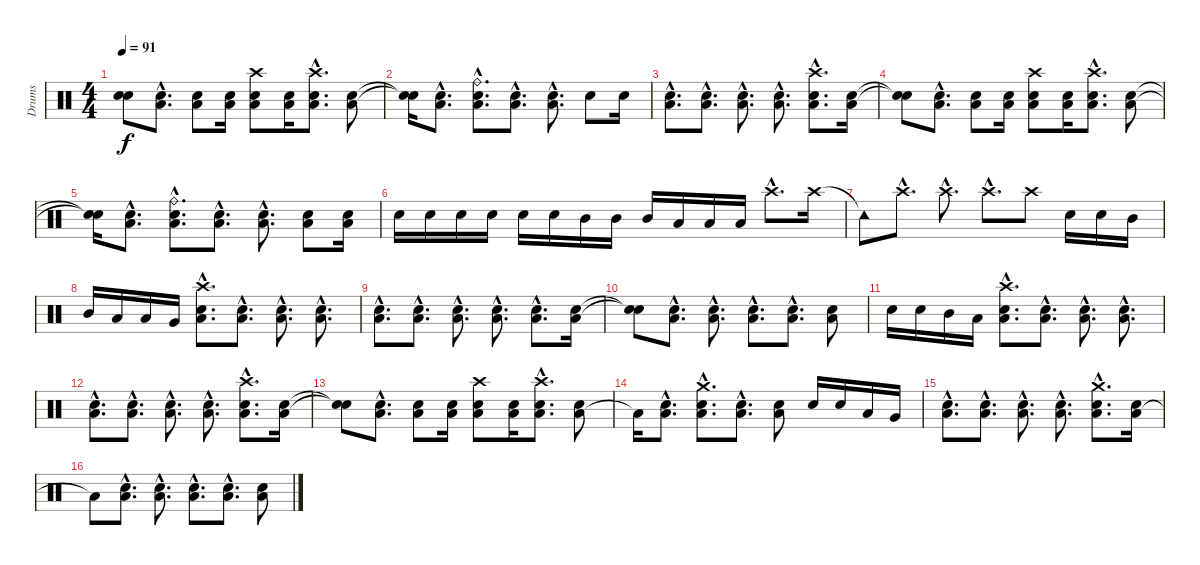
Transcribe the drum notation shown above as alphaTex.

\track ("Drums" "Drums") {instrument percussion}
\staff {score}
\articulation defaults
\ts (4 4)
\tempo 91
\clef neutral
\ks c
("Snare (hit)"{t} "Snare (hit)"{t}).8{dy f} ("Low Tom (hit)"{hac} "Electric Snare (hit)"{hac}).8{d} ("Low Tom (hit)" "Electric Snare (hit)").8 ("Low Tom (hit)" "Electric Snare (hit)").16 ("Crash high (hit)" "Low Tom (hit)" "Electric Snare (hit)").8 ("Low Tom (hit)" "Electric Snare (hit)").16 ("Crash high (hit)"{hac} "Low Tom (hit)"{hac} "Electric Snare (hit)"{hac}).8{d} ("Low Tom (hit)" "Electric Snare (hit)").8 |
("Snare (hit)"{t} "Snare (hit)"{t}).16 ("Low Tom (hit)"{hac} "Electric Snare (hit)"{hac}).8{d} ("Ride (bell)"{hac} "Low Tom (hit)"{hac} "Electric Snare (hit)"{hac}).8{d} ("Low Tom (hit)"{hac} "Electric Snare (hit)"{hac}).8{d} ("Low Tom (hit)"{hac} "Electric Snare (hit)"{hac}).8{d} "Electric Snare (hit)".8 "Electric Snare (hit)".16 |
("Low Tom (hit)"{hac} "Electric Snare (hit)"{hac}).8{d} ("Low Tom (hit)"{hac} "Electric Snare (hit)"{hac}).8{d} ("Low Tom (hit)"{hac} "Electric Snare (hit)"{hac}).8{d} ("Low Tom (hit)"{hac} "Electric Snare (hit)"{hac}).8{d} ("Crash high (hit)"{hac} "Low Tom (hit)"{hac} "Electric Snare (hit)"{hac}).8{d} ("Low Tom (hit)" "Electric Snare (hit)").16 |
("Snare (hit)"{t} "Snare (hit)"{t}).8 ("Low Tom (hit)"{hac} "Electric Snare (hit)"{hac}).8{d} ("Low Tom (hit)" "Electric Snare (hit)").8 ("Low Tom (hit)" "Electric Snare (hit)").16 ("Crash high (hit)" "Low Tom (hit)" "Electric Snare (hit)").8 ("Low Tom (hit)" "Electric Snare (hit)").16 ("Crash high (hit)"{hac} "Low Tom (hit)"{hac} "Electric Snare (hit)"{hac}).8{d} ("Low Tom (hit)" "Electric Snare (hit)").8 |
("Snare (hit)"{t} "Snare (hit)"{t}).16 ("Low Tom (hit)"{hac} "Electric Snare (hit)"{hac}).8{d} ("Ride (bell)"{hac} "Low Tom (hit)"{hac} "Electric Snare (hit)"{hac}).8{d} ("Low Tom (hit)"{hac} "Electric Snare (hit)"{hac}).8{d} ("Low Tom (hit)"{hac} "Electric Snare (hit)"{hac}).8{d} ("Low Tom (hit)" "Electric Snare (hit)").8 ("Low Tom (hit)" "Electric Snare (hit)").16 |
"Electric Snare (hit)".16 "Electric Snare (hit)".16 "Electric Snare (hit)".16 "Electric Snare (hit)".16 "Electric Snare (hit)".16 "Electric Snare (hit)".16 "Mid Tom (hit)".16 "Mid Tom (hit)".16 "Mid Tom (hit)".16 "Low Tom (hit)".16 "Low Tom (hit)".16 "Low Tom (hit)".16 "Crash high (hit)"{hac}.8{d} "Crash high (hit)".16 |
"Tambourine (hit)"{t}.8 "Crash high (hit)"{hac}.8{d} "Crash high (hit)"{hac}.8{d} "Crash high (hit)"{hac}.8{d} "Crash high (hit)".8 "Electric Snare (hit)".16 "Electric Snare (hit)".16 "Mid Tom (hit)".16 |
"Mid Tom (hit)".16 "Low Tom (hit)".16 "Low Tom (hit)".16 "Very Low Tom (hit)".16 ("Crash high (hit)"{hac} "Low Tom (hit)"{hac} "Electric Snare (hit)"{hac}).8{d} ("Low Tom (hit)"{hac} "Electric Snare (hit)"{hac}).8{d} ("Low Tom (hit)"{hac} "Electric Snare (hit)"{hac}).8{d} ("Low Tom (hit)"{hac} "Electric Snare (hit)"{hac}).8{d} |
("Low Tom (hit)"{hac} "Electric Snare (hit)"{hac}).8{d} ("Low Tom (hit)"{hac} "Electric Snare (hit)"{hac}).8{d} ("Low Tom (hit)"{hac} "Electric Snare (hit)"{hac}).8{d} ("Low Tom (hit)"{hac} "Electric Snare (hit)"{hac}).8{d} ("Low Tom (hit)"{hac} "Electric Snare (hit)"{hac}).8{d} ("Low Tom (hit)" "Electric Snare (hit)").16 |
("Snare (hit)"{t} "Snare (hit)"{t}).8 ("Low Tom (hit)"{hac} "Electric Snare (hit)"{hac}).8{d} ("Low Tom (hit)"{hac} "Electric Snare (hit)"{hac}).8{d} ("Low Tom (hit)"{hac} "Electric Snare (hit)"{hac}).8{d} ("Low Tom (hit)"{hac} "Electric Snare (hit)"{hac}).8{d} ("Low Tom (hit)" "Electric Snare (hit)").8 |
"Electric Snare (hit)".16 "Electric Snare (hit)".16 "Mid Tom (hit)".16 "Low Tom (hit)".16 ("Crash high (hit)"{hac} "Low Tom (hit)"{hac} "Electric Snare (hit)"{hac}).8{d} ("Low Tom (hit)"{hac} "Electric Snare (hit)"{hac}).8{d} ("Low Tom (hit)"{hac} "Electric Snare (hit)"{hac}).8{d} ("Low Tom (hit)"{hac} "Electric Snare (hit)"{hac}).8{d} |
("Low Tom (hit)"{hac} "Electric Snare (hit)"{hac}).8{d} ("Low Tom (hit)"{hac} "Electric Snare (hit)"{hac}).8{d} ("Low Tom (hit)"{hac} "Electric Snare (hit)"{hac}).8{d} ("Low Tom (hit)"{hac} "Electric Snare (hit)"{hac}).8{d} ("Crash high (hit)"{hac} "Low Tom (hit)"{hac} "Electric Snare (hit)"{hac}).8{d} ("Low Tom (hit)" "Electric Snare (hit)").16 |
("Snare (hit)"{t} "Snare (hit)"{t}).8 ("Low Tom (hit)"{hac} "Electric Snare (hit)"{hac}).8{d} ("Low Tom (hit)" "Electric Snare (hit)").8 ("Low Tom (hit)" "Electric Snare (hit)").16 ("Crash high (hit)" "Low Tom (hit)" "Electric Snare (hit)").8 ("Low Tom (hit)" "Electric Snare (hit)").16 ("Crash high (hit)"{hac} "Low Tom (hit)"{hac} "Electric Snare (hit)"{hac}).8{d} ("Low Tom (hit)" "Electric Snare (hit)").8 |
"Low Tom (hit)"{t}.16 ("Low Tom (hit)"{hac} "Electric Snare (hit)"{hac}).8{d} ("Crash medium (hit)"{hac} "Low Tom (hit)"{hac} "Electric Snare (hit)"{hac}).8{d} ("Low Tom (hit)"{hac} "Electric Snare (hit)"{hac}).8{d} ("Low Tom (hit)" "Electric Snare (hit)").8 "Electric Snare (hit)".16 "Electric Snare (hit)".16 "Low Tom (hit)".16 "Very Low Tom (hit)".16 |
("Low Tom (hit)"{hac} "Electric Snare (hit)"{hac}).8{d} ("Low Tom (hit)"{hac} "Electric Snare (hit)"{hac}).8{d} ("Low Tom (hit)"{hac} "Electric Snare (hit)"{hac}).8{d} ("Low Tom (hit)"{hac} "Electric Snare (hit)"{hac}).8{d} ("Crash medium (hit)"{hac} "Low Tom (hit)"{hac} "Electric Snare (hit)"{hac}).8{d} ("Low Tom (hit)" "Electric Snare (hit)").16 |
"Low Tom (hit)"{t}.8 ("Low Tom (hit)"{hac} "Electric Snare (hit)"{hac}).8{d} ("Low Tom (hit)"{hac} "Electric Snare (hit)"{hac}).8{d} ("Low Tom (hit)"{hac} "Electric Snare (hit)"{hac}).8{d} ("Low Tom (hit)"{hac} "Electric Snare (hit)"{hac}).8{d} ("Low Tom (hit)" "Electric Snare (hit)").8
